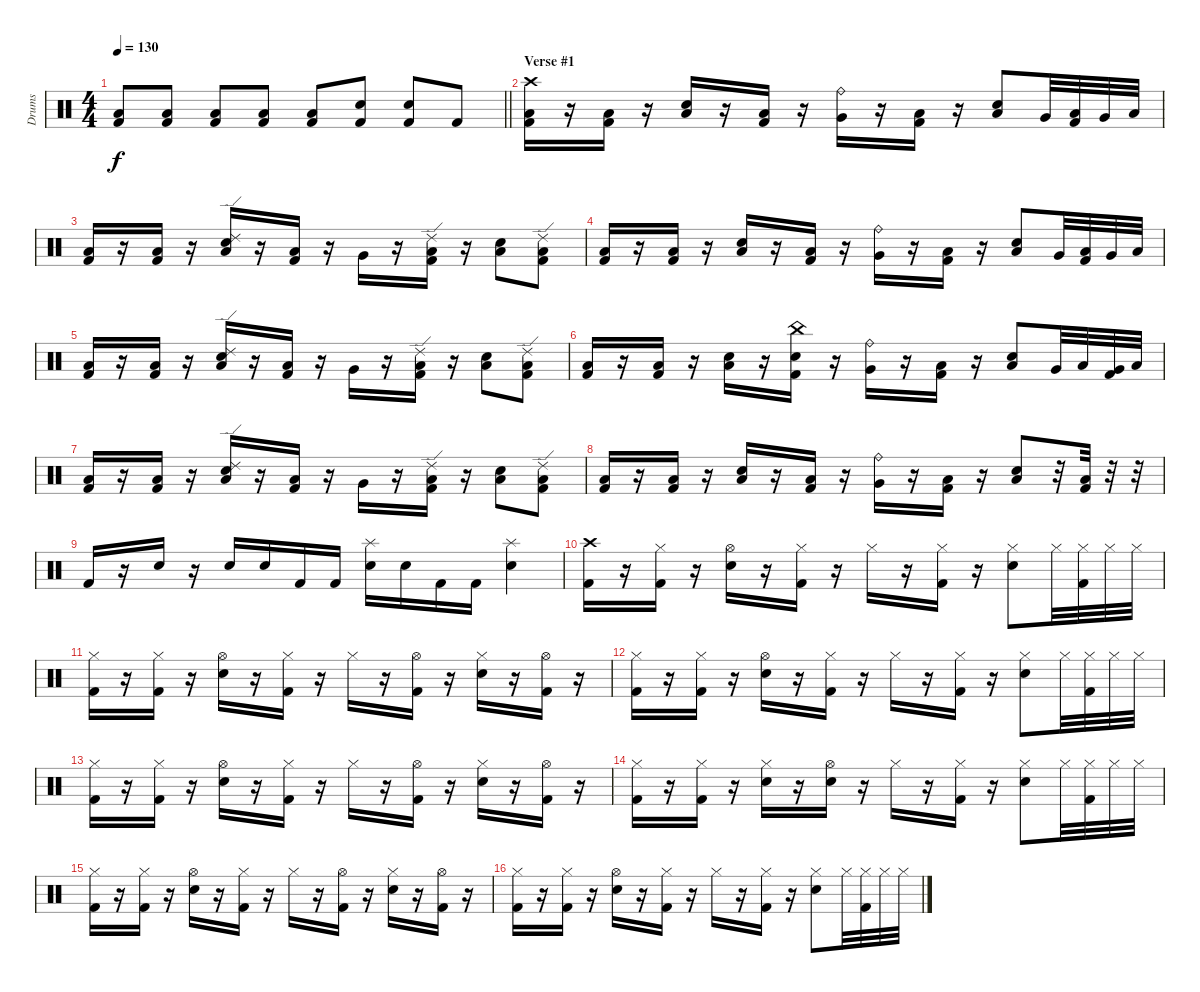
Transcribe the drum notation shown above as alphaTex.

\track ("Drums" "Drums") {instrument percussion}
\staff {score}
\articulation defaults
\ts (4 4)
\tempo 130
\clef neutral
\barLineRight lightlight
\ks c
("Low Floor Tom (hit)" "Kick (hit) 2").8{dy f} ("Low Floor Tom (hit)" "Kick (hit) 2").8 ("Low Floor Tom (hit)" "Kick (hit) 2").8 ("Low Floor Tom (hit)" "Kick (hit) 2").8 ("Low Floor Tom (hit)" "Kick (hit) 2").8 ("Snare (hit) 2" "Kick (hit) 2").8 ("Snare (hit) 2" "Kick (hit) 2").8 "Kick (hit) 2".8 |
\section ("" "Verse #1")
("Crash high (hit)" "Low Floor Tom (hit)" "Kick (hit) 2").16 r.16 ("Low Floor Tom (hit)" "Kick (hit) 2").16 r.16 ("Low Floor Tom (hit)" "Snare (hit) 2").16 r.16 ("Low Floor Tom (hit)" "Kick (hit) 2").16 r.16 ("Ride (bell)" "Very Low Tom (hit)").16 r.16 ("Low Floor Tom (hit)" "Kick (hit) 2").16 r.16 ("Low Floor Tom (hit)" "Snare (hit) 2").8 "Very Low Tom (hit)".32 ("Low Floor Tom (hit)" "Kick (hit) 2").32 "Very Low Tom (hit)".32 "Low Floor Tom (hit)".32 |
("Low Floor Tom (hit)" "Kick (hit) 2").16 r.16 ("Low Floor Tom (hit)" "Kick (hit) 2").16 r.16 ("Ride (edge) 2" "Low Floor Tom (hit)" "Snare (hit) 2").16 r.16 ("Low Floor Tom (hit)" "Kick (hit) 2").16 r.16 "Very Low Tom (hit)".16 r.16 ("Ride (edge) 2" "Low Floor Tom (hit)" "Kick (hit) 2").16 r.16 ("Low Floor Tom (hit)" "Snare (hit) 2").8 ("Ride (edge) 2" "Low Floor Tom (hit)" "Kick (hit) 2").8 |
("Low Floor Tom (hit)" "Kick (hit) 2").16 r.16 ("Low Floor Tom (hit)" "Kick (hit) 2").16 r.16 ("Low Floor Tom (hit)" "Snare (hit) 2").16 r.16 ("Low Floor Tom (hit)" "Kick (hit) 2").16 r.16 ("Ride (bell)" "Very Low Tom (hit)").16 r.16 ("Low Floor Tom (hit)" "Kick (hit) 2").16 r.16 ("Low Floor Tom (hit)" "Snare (hit) 2").8 "Very Low Tom (hit)".32 ("Low Floor Tom (hit)" "Kick (hit) 2").32 "Very Low Tom (hit)".32 "Low Floor Tom (hit)".32 |
("Low Floor Tom (hit)" "Kick (hit) 2").16 r.16 ("Low Floor Tom (hit)" "Kick (hit) 2").16 r.16 ("Ride (edge) 2" "Low Floor Tom (hit)" "Snare (hit) 2").16 r.16 ("Low Floor Tom (hit)" "Kick (hit) 2").16 r.16 "Very Low Tom (hit)".16 r.16 ("Ride (edge) 2" "Low Floor Tom (hit)" "Kick (hit) 2").16 r.16 ("Low Floor Tom (hit)" "Snare (hit) 2").8 ("Ride (edge) 2" "Low Floor Tom (hit)" "Kick (hit) 2").8 |
("Low Floor Tom (hit)" "Kick (hit) 2").16 r.16 ("Low Floor Tom (hit)" "Kick (hit) 2").16 r.16 ("Low Floor Tom (hit)" "Snare (hit) 2").16 r.16 ("China (hit)" "Snare (hit) 2" "Kick (hit) 2").16 r.16 ("Ride (bell)" "Very Low Tom (hit)").16 r.16 ("Low Floor Tom (hit)" "Kick (hit) 2").16 r.16 ("Low Floor Tom (hit)" "Snare (hit) 2").8 "Very Low Tom (hit)".32 "Low Floor Tom (hit)".32 ("Very Low Tom (hit)" "Kick (hit) 2").32 "Low Floor Tom (hit)".32 |
("Low Floor Tom (hit)" "Kick (hit) 2").16 r.16 ("Low Floor Tom (hit)" "Kick (hit) 2").16 r.16 ("Ride (edge) 2" "Low Floor Tom (hit)" "Snare (hit) 2").16 r.16 ("Low Floor Tom (hit)" "Kick (hit) 2").16 r.16 "Very Low Tom (hit)".16 r.16 ("Ride (edge) 2" "Low Floor Tom (hit)" "Kick (hit) 2").16 r.16 ("Low Floor Tom (hit)" "Snare (hit) 2").8 ("Ride (edge) 2" "Low Floor Tom (hit)" "Kick (hit) 2").8 |
("Low Floor Tom (hit)" "Kick (hit) 2").16 r.16 ("Low Floor Tom (hit)" "Kick (hit) 2").16 r.16 ("Low Floor Tom (hit)" "Snare (hit) 2").16 r.16 ("Low Floor Tom (hit)" "Kick (hit) 2").16 r.16 ("Ride (bell)" "Very Low Tom (hit)").16 r.16 ("Low Floor Tom (hit)" "Kick (hit) 2").16 r.16 ("Low Floor Tom (hit)" "Snare (hit) 2").8 r.32 ("Low Floor Tom (hit)" "Kick (hit) 2").32 r.32 r.32 |
"Kick (hit) 2".16 r.16 "Snare (hit) 2".16 r.16 "Snare (hit) 2".16 "Snare (hit) 2".16 "Kick (hit) 2".16 "Kick (hit) 2".16 ("Splash (hit)" "Snare (hit) 2").16 "Snare (hit) 2".16 "Kick (hit) 2".16 "Kick (hit) 2".16 ("Splash (hit)" "Snare (hit) 2").4 |
("Crash high (hit)" "Kick (hit) 2").16 r.16 ("Hi-Hat (closed)" "Kick (hit) 2").16 r.16 ("Hi-Hat (open)" "Snare (hit) 2").16 r.16 ("Hi-Hat (closed)" "Kick (hit) 2").16 r.16 "Hi-Hat (closed)".16 r.16 ("Hi-Hat (closed)" "Kick (hit) 2").16 r.16 ("Hi-Hat (closed)" "Snare (hit) 2").8 "Hi-Hat (closed)".32 ("Hi-Hat (closed)" "Kick (hit) 2").32 "Hi-Hat (closed)".32 "Hi-Hat (closed)".32 |
("Hi-Hat (closed)" "Kick (hit) 2").16 r.16 ("Hi-Hat (closed)" "Kick (hit) 2").16 r.16 ("Hi-Hat (open)" "Snare (hit) 2").16 r.16 ("Hi-Hat (closed)" "Kick (hit) 2").16 r.16 "Hi-Hat (closed)".16 r.16 ("Hi-Hat (open)" "Kick (hit) 2").16 r.16 ("Hi-Hat (closed)" "Snare (hit) 2").16 r.16 ("Hi-Hat (open)" "Kick (hit) 2").16 r.16 |
("Hi-Hat (closed)" "Kick (hit) 2").16 r.16 ("Hi-Hat (closed)" "Kick (hit) 2").16 r.16 ("Hi-Hat (open)" "Snare (hit) 2").16 r.16 ("Hi-Hat (closed)" "Kick (hit) 2").16 r.16 "Hi-Hat (closed)".16 r.16 ("Hi-Hat (closed)" "Kick (hit) 2").16 r.16 ("Hi-Hat (closed)" "Snare (hit) 2").8 "Hi-Hat (closed)".32 ("Hi-Hat (closed)" "Kick (hit) 2").32 "Hi-Hat (closed)".32 "Hi-Hat (closed)".32 |
("Hi-Hat (closed)" "Kick (hit) 2").16 r.16 ("Hi-Hat (closed)" "Kick (hit) 2").16 r.16 ("Hi-Hat (open)" "Snare (hit) 2").16 r.16 ("Hi-Hat (closed)" "Kick (hit) 2").16 r.16 "Hi-Hat (closed)".16 r.16 ("Hi-Hat (open)" "Kick (hit) 2").16 r.16 ("Hi-Hat (closed)" "Snare (hit) 2").16 r.16 ("Hi-Hat (open)" "Kick (hit) 2").16 r.16 |
("Hi-Hat (closed)" "Kick (hit) 2").16 r.16 ("Hi-Hat (closed)" "Kick (hit) 2").16 r.16 ("Hi-Hat (closed)" "Snare (hit) 2").16 r.16 ("Hi-Hat (open)" "Snare (hit) 2").16 r.16 "Hi-Hat (closed)".16 r.16 ("Hi-Hat (closed)" "Kick (hit) 2").16 r.16 ("Hi-Hat (closed)" "Snare (hit) 2").8 "Hi-Hat (closed)".32 ("Hi-Hat (closed)" "Kick (hit) 2").32 "Hi-Hat (closed)".32 "Hi-Hat (closed)".32 |
("Hi-Hat (closed)" "Kick (hit) 2").16 r.16 ("Hi-Hat (closed)" "Kick (hit) 2").16 r.16 ("Hi-Hat (open)" "Snare (hit) 2").16 r.16 ("Hi-Hat (closed)" "Kick (hit) 2").16 r.16 "Hi-Hat (closed)".16 r.16 ("Hi-Hat (open)" "Kick (hit) 2").16 r.16 ("Hi-Hat (closed)" "Snare (hit) 2").16 r.16 ("Hi-Hat (open)" "Kick (hit) 2").16 r.16 |
("Hi-Hat (closed)" "Kick (hit) 2").16 r.16 ("Hi-Hat (closed)" "Kick (hit) 2").16 r.16 ("Hi-Hat (open)" "Snare (hit) 2").16 r.16 ("Hi-Hat (closed)" "Kick (hit) 2").16 r.16 "Hi-Hat (closed)".16 r.16 ("Hi-Hat (closed)" "Kick (hit) 2").16 r.16 ("Hi-Hat (closed)" "Snare (hit) 2").8 "Hi-Hat (closed)".32 ("Hi-Hat (closed)" "Kick (hit) 2").32 "Hi-Hat (closed)".32 "Hi-Hat (closed)".32
